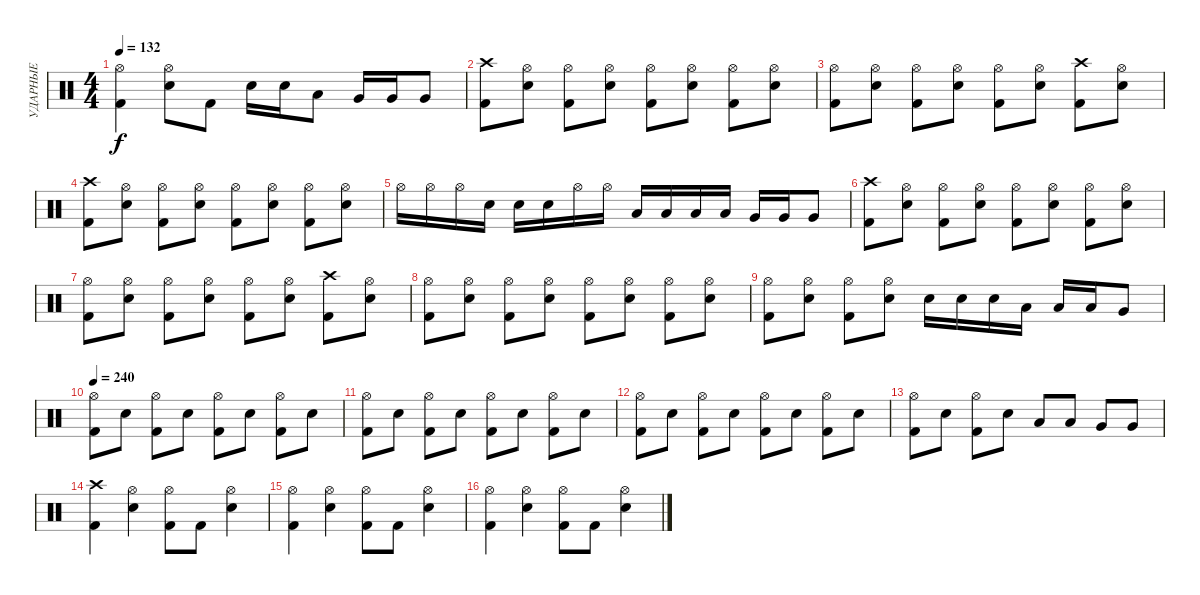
\track ("УДАРНЫЕ" "УДАРНЫЕ") {instrument percussion}
\staff {score}
\articulation defaults
\ts (4 4)
\tempo 132
\clef neutral
\ks c
("Hi-Hat (open)" "Kick (hit) 2").4{dy f} ("Hi-Hat (open)" "Snare (hit) 2").8 "Kick (hit) 2".8 "Snare (hit) 2".16 "Snare (hit) 2".16 "Low Tom (hit)".8 "Very Low Tom (hit)".16 "Very Low Tom (hit)".16 "Very Low Tom (hit)".8 |
("Crash high (hit)" "Kick (hit) 2").8 ("Hi-Hat (open)" "Snare (hit) 2").8 ("Hi-Hat (open)" "Kick (hit) 2").8 ("Hi-Hat (open)" "Snare (hit) 2").8 ("Hi-Hat (open)" "Kick (hit) 2").8 ("Hi-Hat (open)" "Snare (hit) 2").8 ("Hi-Hat (open)" "Kick (hit) 2").8 ("Hi-Hat (open)" "Snare (hit) 2").8 |
("Hi-Hat (open)" "Kick (hit) 2").8 ("Hi-Hat (open)" "Snare (hit) 2").8 ("Hi-Hat (open)" "Kick (hit) 2").8 ("Hi-Hat (open)" "Snare (hit) 2").8 ("Hi-Hat (open)" "Kick (hit) 2").8 ("Hi-Hat (open)" "Snare (hit) 2").8 ("Crash high (hit)" "Kick (hit) 2").8 ("Hi-Hat (open)" "Snare (hit) 2").8 |
("Crash high (hit)" "Kick (hit) 2").8 ("Hi-Hat (open)" "Snare (hit) 2").8 ("Hi-Hat (open)" "Kick (hit) 2").8 ("Hi-Hat (open)" "Snare (hit) 2").8 ("Hi-Hat (open)" "Kick (hit) 2").8 ("Hi-Hat (open)" "Snare (hit) 2").8 ("Hi-Hat (open)" "Kick (hit) 2").8 ("Hi-Hat (open)" "Snare (hit) 2").8 |
"Hi-Hat (open)".16 "Hi-Hat (open)".16 "Hi-Hat (open)".16 "Snare (hit) 2".16 "Snare (hit) 2".16 "Snare (hit) 2".16 "Hi-Hat (open)".16 "Hi-Hat (open)".16 "Low Tom (hit)".16 "Low Tom (hit)".16 "Low Tom (hit)".16 "Low Tom (hit)".16 "Very Low Tom (hit)".16 "Very Low Tom (hit)".16 "Very Low Tom (hit)".8 |
("Crash high (hit)" "Kick (hit) 2").8 ("Hi-Hat (open)" "Snare (hit) 2").8 ("Hi-Hat (open)" "Kick (hit) 2").8 ("Hi-Hat (open)" "Snare (hit) 2").8 ("Hi-Hat (open)" "Kick (hit) 2").8 ("Hi-Hat (open)" "Snare (hit) 2").8 ("Hi-Hat (open)" "Kick (hit) 2").8 ("Hi-Hat (open)" "Snare (hit) 2").8 |
("Hi-Hat (open)" "Kick (hit) 2").8 ("Hi-Hat (open)" "Snare (hit) 2").8 ("Hi-Hat (open)" "Kick (hit) 2").8 ("Hi-Hat (open)" "Snare (hit) 2").8 ("Hi-Hat (open)" "Kick (hit) 2").8 ("Hi-Hat (open)" "Snare (hit) 2").8 ("Crash high (hit)" "Kick (hit) 2").8 ("Hi-Hat (open)" "Snare (hit) 2").8 |
("Hi-Hat (open)" "Kick (hit) 2").8 ("Hi-Hat (open)" "Snare (hit) 2").8 ("Hi-Hat (open)" "Kick (hit) 2").8 ("Hi-Hat (open)" "Snare (hit) 2").8 ("Hi-Hat (open)" "Kick (hit) 2").8 ("Hi-Hat (open)" "Snare (hit) 2").8 ("Hi-Hat (open)" "Kick (hit) 2").8 ("Hi-Hat (open)" "Snare (hit) 2").8 |
("Hi-Hat (open)" "Kick (hit) 2").8 ("Hi-Hat (open)" "Snare (hit) 2").8 ("Hi-Hat (open)" "Kick (hit) 2").8 ("Hi-Hat (open)" "Snare (hit) 2").8 "Snare (hit) 2".16 "Snare (hit) 2".16 "Snare (hit) 2".16 "Low Tom (hit)".16 "Low Tom (hit)".16 "Low Tom (hit)".16 "Very Low Tom (hit)".8 |
\tempo 240
("Kick (hit) 2" "Hi-Hat (open)").8 "Snare (hit) 2".8 ("Kick (hit) 2" "Hi-Hat (open)").8 "Snare (hit) 2".8 ("Kick (hit) 2" "Hi-Hat (open)").8 "Snare (hit) 2".8 ("Kick (hit) 2" "Hi-Hat (open)").8 "Snare (hit) 2".8 |
("Kick (hit) 2" "Hi-Hat (open)").8 "Snare (hit) 2".8 ("Kick (hit) 2" "Hi-Hat (open)").8 "Snare (hit) 2".8 ("Kick (hit) 2" "Hi-Hat (open)").8 "Snare (hit) 2".8 ("Kick (hit) 2" "Hi-Hat (open)").8 "Snare (hit) 2".8 |
("Kick (hit) 2" "Hi-Hat (open)").8 "Snare (hit) 2".8 ("Kick (hit) 2" "Hi-Hat (open)").8 "Snare (hit) 2".8 ("Kick (hit) 2" "Hi-Hat (open)").8 "Snare (hit) 2".8 ("Kick (hit) 2" "Hi-Hat (open)").8 "Snare (hit) 2".8 |
("Kick (hit) 2" "Hi-Hat (open)").8 "Snare (hit) 2".8 ("Kick (hit) 2" "Hi-Hat (open)").8 "Snare (hit) 2".8 "Low Tom (hit)".8 "Low Tom (hit)".8 "Very Low Tom (hit)".8 "Very Low Tom (hit)".8 |
("Kick (hit) 2" "Crash high (hit)").4 ("Snare (hit) 2" "Hi-Hat (open)").4 ("Kick (hit) 2" "Hi-Hat (open)").8 "Kick (hit) 2".8 ("Snare (hit) 2" "Hi-Hat (open)").4 |
("Kick (hit) 2" "Hi-Hat (open)").4 ("Snare (hit) 2" "Hi-Hat (open)").4 ("Kick (hit) 2" "Hi-Hat (open)").8 "Kick (hit) 2".8 ("Snare (hit) 2" "Hi-Hat (open)").4 |
("Kick (hit) 2" "Hi-Hat (open)").4 ("Snare (hit) 2" "Hi-Hat (open)").4 ("Kick (hit) 2" "Hi-Hat (open)").8 "Kick (hit) 2".8 ("Snare (hit) 2" "Hi-Hat (open)").4
